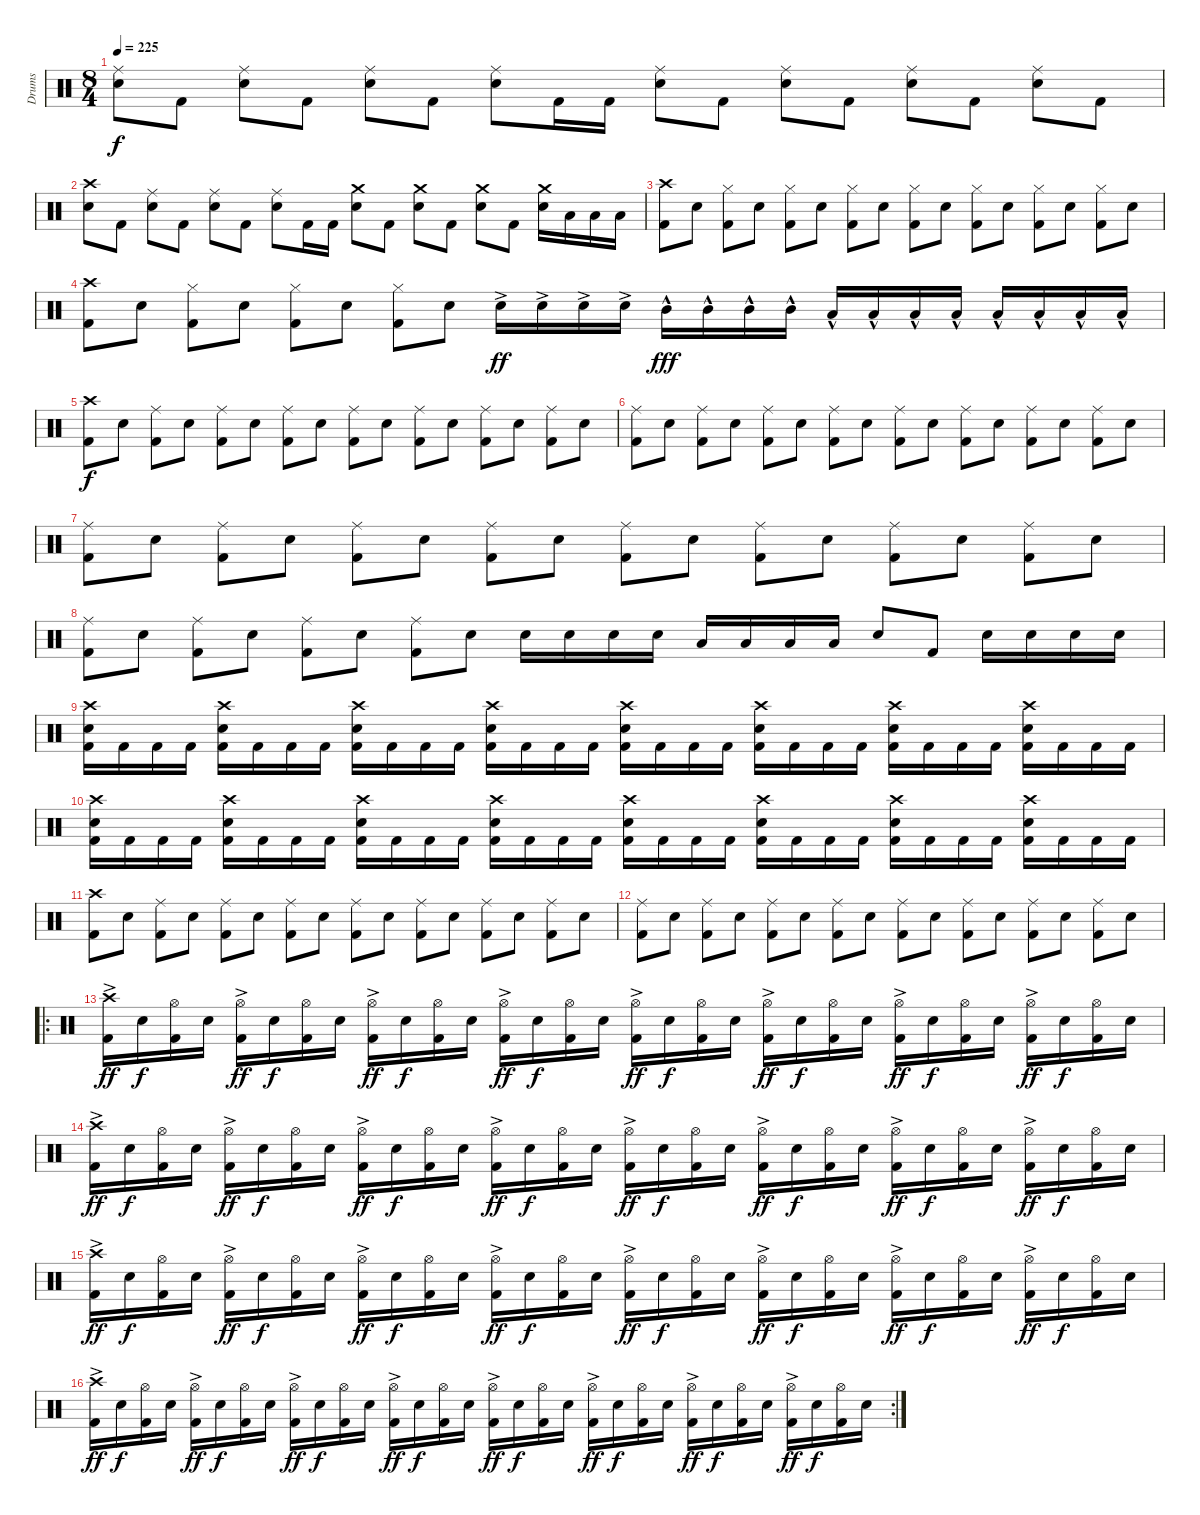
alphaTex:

\track ("Drums" "Drums") {instrument percussion}
\staff {score}
\articulation defaults
\ts (8 4)
\tempo 225
\clef neutral
\ks c
("Ride (middle)" "Electric Snare (hit)").8{dy f} "Kick (hit) 2".8 ("Ride (middle)" "Electric Snare (hit)").8 "Kick (hit) 2".8 ("Ride (middle)" "Electric Snare (hit)").8 "Kick (hit) 2".8 ("Ride (middle)" "Electric Snare (hit)").8 "Kick (hit) 2".16 "Kick (hit) 2".16 ("Ride (middle)" "Electric Snare (hit)").8 "Kick (hit) 2".8 ("Ride (middle)" "Electric Snare (hit)").8 "Kick (hit) 2".8 ("Ride (middle)" "Electric Snare (hit)").8 "Kick (hit) 2".8 ("Ride (middle)" "Electric Snare (hit)").8 "Kick (hit) 2".8 |
("Crash high (hit)" "Electric Snare (hit)").8 "Kick (hit) 2".8 ("Ride (middle)" "Electric Snare (hit)").8 "Kick (hit) 2".8 ("Ride (middle)" "Electric Snare (hit)").8 "Kick (hit) 2".8 ("Ride (middle)" "Electric Snare (hit)").8 "Kick (hit) 2".16 "Kick (hit) 2".16 ("Crash medium (hit)" "Electric Snare (hit)").8 "Kick (hit) 2".8 ("Crash medium (hit)" "Electric Snare (hit)").8 "Kick (hit) 2".8 ("Crash medium (hit)" "Electric Snare (hit)").8 "Kick (hit) 2".8 ("Crash medium (hit)" "Electric Snare (hit)").16 "Low Tom (hit)".16 "Low Tom (hit)".16 "Low Tom (hit)".16 |
("Crash high (hit)" "Kick (hit) 2").8 "Electric Snare (hit)".8 ("Hi-Hat (closed)" "Kick (hit) 2").8 "Electric Snare (hit)".8 ("Hi-Hat (closed)" "Kick (hit) 2").8 "Electric Snare (hit)".8 ("Hi-Hat (closed)" "Kick (hit) 2").8 "Electric Snare (hit)".8 ("Hi-Hat (closed)" "Kick (hit) 2").8 "Electric Snare (hit)".8 ("Hi-Hat (closed)" "Kick (hit) 2").8 "Electric Snare (hit)".8 ("Hi-Hat (closed)" "Kick (hit) 2").8 "Electric Snare (hit)".8 ("Hi-Hat (closed)" "Kick (hit) 2").8 "Electric Snare (hit)".8 |
("Crash high (hit)" "Kick (hit) 2").8 "Electric Snare (hit)".8 ("Hi-Hat (closed)" "Kick (hit) 2").8 "Electric Snare (hit)".8 ("Hi-Hat (closed)" "Kick (hit) 2").8 "Electric Snare (hit)".8 ("Hi-Hat (closed)" "Kick (hit) 2").8 "Electric Snare (hit)".8 "Electric Snare (hit)"{ac}.16{dy ff} "Electric Snare (hit)"{ac}.16 "Electric Snare (hit)"{ac}.16 "Electric Snare (hit)"{ac}.16 "Mid Tom (hit)"{hac}.16{dy fff} "Mid Tom (hit)"{hac}.16 "Mid Tom (hit)"{hac}.16 "Mid Tom (hit)"{hac}.16 "Low Tom (hit)"{hac}.16 "Low Tom (hit)"{hac}.16 "Low Tom (hit)"{hac}.16 "Low Tom (hit)"{hac}.16 "Low Floor Tom (hit)"{hac}.16 "Low Floor Tom (hit)"{hac}.16 "Low Floor Tom (hit)"{hac}.16 "Low Floor Tom (hit)"{hac}.16 |
("Crash high (hit)" "Kick (hit) 2").8{dy f} "Electric Snare (hit)".8 ("Ride (middle)" "Kick (hit) 2").8 "Electric Snare (hit)".8 ("Ride (middle)" "Kick (hit) 2").8 "Electric Snare (hit)".8 ("Ride (middle)" "Kick (hit) 2").8 "Electric Snare (hit)".8 ("Ride (middle)" "Kick (hit) 2").8 "Electric Snare (hit)".8 ("Ride (middle)" "Kick (hit) 2").8 "Electric Snare (hit)".8 ("Ride (middle)" "Kick (hit) 2").8 "Electric Snare (hit)".8 ("Ride (middle)" "Kick (hit) 2").8 "Electric Snare (hit)".8 |
("Ride (middle)" "Kick (hit) 2").8 "Electric Snare (hit)".8 ("Ride (middle)" "Kick (hit) 2").8 "Electric Snare (hit)".8 ("Ride (middle)" "Kick (hit) 2").8 "Electric Snare (hit)".8 ("Ride (middle)" "Kick (hit) 2").8 "Electric Snare (hit)".8 ("Ride (middle)" "Kick (hit) 2").8 "Electric Snare (hit)".8 ("Ride (middle)" "Kick (hit) 2").8 "Electric Snare (hit)".8 ("Ride (middle)" "Kick (hit) 2").8 "Electric Snare (hit)".8 ("Ride (middle)" "Kick (hit) 2").8 "Electric Snare (hit)".8 |
("Ride (middle)" "Kick (hit) 2").8 "Electric Snare (hit)".8 ("Ride (middle)" "Kick (hit) 2").8 "Electric Snare (hit)".8 ("Ride (middle)" "Kick (hit) 2").8 "Electric Snare (hit)".8 ("Ride (middle)" "Kick (hit) 2").8 "Electric Snare (hit)".8 ("Ride (middle)" "Kick (hit) 2").8 "Electric Snare (hit)".8 ("Ride (middle)" "Kick (hit) 2").8 "Electric Snare (hit)".8 ("Ride (middle)" "Kick (hit) 2").8 "Electric Snare (hit)".8 ("Ride (middle)" "Kick (hit) 2").8 "Electric Snare (hit)".8 |
("Ride (middle)" "Kick (hit) 2").8 "Electric Snare (hit)".8 ("Ride (middle)" "Kick (hit) 2").8 "Electric Snare (hit)".8 ("Ride (middle)" "Kick (hit) 2").8 "Electric Snare (hit)".8 ("Ride (middle)" "Kick (hit) 2").8 "Electric Snare (hit)".8 "Electric Snare (hit)".16 "Electric Snare (hit)".16 "Electric Snare (hit)".16 "Electric Snare (hit)".16 "Low Tom (hit)".16 "Low Tom (hit)".16 "Low Tom (hit)".16 "Low Tom (hit)".16 "Electric Snare (hit)".8 "Kick (hit) 2".8 "Electric Snare (hit)".16 "Electric Snare (hit)".16 "Electric Snare (hit)".16 "Electric Snare (hit)".16 |
("Crash high (hit)" "Electric Snare (hit)" "Kick (hit) 2").16 "Kick (hit) 2".16 "Kick (hit) 2".16 "Kick (hit) 2".16 ("Crash high (hit)" "Electric Snare (hit)" "Kick (hit) 2").16 "Kick (hit) 2".16 "Kick (hit) 2".16 "Kick (hit) 2".16 ("Crash high (hit)" "Electric Snare (hit)" "Kick (hit) 2").16 "Kick (hit) 2".16 "Kick (hit) 2".16 "Kick (hit) 2".16 ("Crash high (hit)" "Electric Snare (hit)" "Kick (hit) 2").16 "Kick (hit) 2".16 "Kick (hit) 2".16 "Kick (hit) 2".16 ("Crash high (hit)" "Electric Snare (hit)" "Kick (hit) 2").16 "Kick (hit) 2".16 "Kick (hit) 2".16 "Kick (hit) 2".16 ("Crash high (hit)" "Electric Snare (hit)" "Kick (hit) 2").16 "Kick (hit) 2".16 "Kick (hit) 2".16 "Kick (hit) 2".16 ("Crash high (hit)" "Electric Snare (hit)" "Kick (hit) 2").16 "Kick (hit) 2".16 "Kick (hit) 2".16 "Kick (hit) 2".16 ("Crash high (hit)" "Electric Snare (hit)" "Kick (hit) 2").16 "Kick (hit) 2".16 "Kick (hit) 2".16 "Kick (hit) 2".16 |
("Crash high (hit)" "Electric Snare (hit)" "Kick (hit) 2").16 "Kick (hit) 2".16 "Kick (hit) 2".16 "Kick (hit) 2".16 ("Crash high (hit)" "Electric Snare (hit)" "Kick (hit) 2").16 "Kick (hit) 2".16 "Kick (hit) 2".16 "Kick (hit) 2".16 ("Crash high (hit)" "Electric Snare (hit)" "Kick (hit) 2").16 "Kick (hit) 2".16 "Kick (hit) 2".16 "Kick (hit) 2".16 ("Crash high (hit)" "Electric Snare (hit)" "Kick (hit) 2").16 "Kick (hit) 2".16 "Kick (hit) 2".16 "Kick (hit) 2".16 ("Crash high (hit)" "Electric Snare (hit)" "Kick (hit) 2").16 "Kick (hit) 2".16 "Kick (hit) 2".16 "Kick (hit) 2".16 ("Crash high (hit)" "Electric Snare (hit)" "Kick (hit) 2").16 "Kick (hit) 2".16 "Kick (hit) 2".16 "Kick (hit) 2".16 ("Crash high (hit)" "Electric Snare (hit)" "Kick (hit) 2").16 "Kick (hit) 2".16 "Kick (hit) 2".16 "Kick (hit) 2".16 ("Crash high (hit)" "Electric Snare (hit)" "Kick (hit) 2").16 "Kick (hit) 2".16 "Kick (hit) 2".16 "Kick (hit) 2".16 |
("Crash high (hit)" "Kick (hit) 2").8 "Electric Snare (hit)".8 ("Ride (middle)" "Kick (hit) 2").8 "Electric Snare (hit)".8 ("Ride (middle)" "Kick (hit) 2").8 "Electric Snare (hit)".8 ("Ride (middle)" "Kick (hit) 2").8 "Electric Snare (hit)".8 ("Ride (middle)" "Kick (hit) 2").8 "Electric Snare (hit)".8 ("Ride (middle)" "Kick (hit) 2").8 "Electric Snare (hit)".8 ("Ride (middle)" "Kick (hit) 2").8 "Electric Snare (hit)".8 ("Ride (middle)" "Kick (hit) 2").8 "Electric Snare (hit)".8 |
("Ride (middle)" "Kick (hit) 2").8 "Electric Snare (hit)".8 ("Ride (middle)" "Kick (hit) 2").8 "Electric Snare (hit)".8 ("Ride (middle)" "Kick (hit) 2").8 "Electric Snare (hit)".8 ("Ride (middle)" "Kick (hit) 2").8 "Electric Snare (hit)".8 ("Ride (middle)" "Kick (hit) 2").8 "Electric Snare (hit)".8 ("Ride (middle)" "Kick (hit) 2").8 "Electric Snare (hit)".8 ("Ride (middle)" "Kick (hit) 2").8 "Electric Snare (hit)".8 ("Ride (middle)" "Kick (hit) 2").8 "Electric Snare (hit)".8 |
\ro
("Crash high (hit)"{ac} "Kick (hit) 2").16{dy ff} "Electric Snare (hit)".16{dy f} ("Hi-Hat (open)" "Kick (hit) 2").16 "Electric Snare (hit)".16 ("Hi-Hat (open)"{ac} "Kick (hit) 2").16{dy ff} "Electric Snare (hit)".16{dy f} ("Hi-Hat (open)" "Kick (hit) 2").16 "Electric Snare (hit)".16 ("Hi-Hat (open)"{ac} "Kick (hit) 2").16{dy ff} "Electric Snare (hit)".16{dy f} ("Hi-Hat (open)" "Kick (hit) 2").16 "Electric Snare (hit)".16 ("Hi-Hat (open)"{ac} "Kick (hit) 2").16{dy ff} "Electric Snare (hit)".16{dy f} ("Hi-Hat (open)" "Kick (hit) 2").16 "Electric Snare (hit)".16 ("Hi-Hat (open)"{ac} "Kick (hit) 2").16{dy ff} "Electric Snare (hit)".16{dy f} ("Hi-Hat (open)" "Kick (hit) 2").16 "Electric Snare (hit)".16 ("Hi-Hat (open)"{ac} "Kick (hit) 2").16{dy ff} "Electric Snare (hit)".16{dy f} ("Hi-Hat (open)" "Kick (hit) 2").16 "Electric Snare (hit)".16 ("Hi-Hat (open)"{ac} "Kick (hit) 2").16{dy ff} "Electric Snare (hit)".16{dy f} ("Hi-Hat (open)" "Kick (hit) 2").16 "Electric Snare (hit)".16 ("Hi-Hat (open)"{ac} "Kick (hit) 2").16{dy ff} "Electric Snare (hit)".16{dy f} ("Hi-Hat (open)" "Kick (hit) 2").16 "Electric Snare (hit)".16 |
("Crash high (hit)"{ac} "Kick (hit) 2").16{dy ff} "Electric Snare (hit)".16{dy f} ("Hi-Hat (open)" "Kick (hit) 2").16 "Electric Snare (hit)".16 ("Hi-Hat (open)"{ac} "Kick (hit) 2").16{dy ff} "Electric Snare (hit)".16{dy f} ("Hi-Hat (open)" "Kick (hit) 2").16 "Electric Snare (hit)".16 ("Hi-Hat (open)"{ac} "Kick (hit) 2").16{dy ff} "Electric Snare (hit)".16{dy f} ("Hi-Hat (open)" "Kick (hit) 2").16 "Electric Snare (hit)".16 ("Hi-Hat (open)"{ac} "Kick (hit) 2").16{dy ff} "Electric Snare (hit)".16{dy f} ("Hi-Hat (open)" "Kick (hit) 2").16 "Electric Snare (hit)".16 ("Hi-Hat (open)"{ac} "Kick (hit) 2").16{dy ff} "Electric Snare (hit)".16{dy f} ("Hi-Hat (open)" "Kick (hit) 2").16 "Electric Snare (hit)".16 ("Hi-Hat (open)"{ac} "Kick (hit) 2").16{dy ff} "Electric Snare (hit)".16{dy f} ("Hi-Hat (open)" "Kick (hit) 2").16 "Electric Snare (hit)".16 ("Hi-Hat (open)"{ac} "Kick (hit) 2").16{dy ff} "Electric Snare (hit)".16{dy f} ("Hi-Hat (open)" "Kick (hit) 2").16 "Electric Snare (hit)".16 ("Hi-Hat (open)"{ac} "Kick (hit) 2").16{dy ff} "Electric Snare (hit)".16{dy f} ("Hi-Hat (open)" "Kick (hit) 2").16 "Electric Snare (hit)".16 |
("Crash high (hit)"{ac} "Kick (hit) 2").16{dy ff} "Electric Snare (hit)".16{dy f} ("Hi-Hat (open)" "Kick (hit) 2").16 "Electric Snare (hit)".16 ("Hi-Hat (open)"{ac} "Kick (hit) 2").16{dy ff} "Electric Snare (hit)".16{dy f} ("Hi-Hat (open)" "Kick (hit) 2").16 "Electric Snare (hit)".16 ("Hi-Hat (open)"{ac} "Kick (hit) 2").16{dy ff} "Electric Snare (hit)".16{dy f} ("Hi-Hat (open)" "Kick (hit) 2").16 "Electric Snare (hit)".16 ("Hi-Hat (open)"{ac} "Kick (hit) 2").16{dy ff} "Electric Snare (hit)".16{dy f} ("Hi-Hat (open)" "Kick (hit) 2").16 "Electric Snare (hit)".16 ("Hi-Hat (open)"{ac} "Kick (hit) 2").16{dy ff} "Electric Snare (hit)".16{dy f} ("Hi-Hat (open)" "Kick (hit) 2").16 "Electric Snare (hit)".16 ("Hi-Hat (open)"{ac} "Kick (hit) 2").16{dy ff} "Electric Snare (hit)".16{dy f} ("Hi-Hat (open)" "Kick (hit) 2").16 "Electric Snare (hit)".16 ("Hi-Hat (open)"{ac} "Kick (hit) 2").16{dy ff} "Electric Snare (hit)".16{dy f} ("Hi-Hat (open)" "Kick (hit) 2").16 "Electric Snare (hit)".16 ("Hi-Hat (open)"{ac} "Kick (hit) 2").16{dy ff} "Electric Snare (hit)".16{dy f} ("Hi-Hat (open)" "Kick (hit) 2").16 "Electric Snare (hit)".16 |
\rc 2
("Crash high (hit)"{ac} "Kick (hit) 2").16{dy ff} "Electric Snare (hit)".16{dy f} ("Hi-Hat (open)" "Kick (hit) 2").16 "Electric Snare (hit)".16 ("Hi-Hat (open)"{ac} "Kick (hit) 2").16{dy ff} "Electric Snare (hit)".16{dy f} ("Hi-Hat (open)" "Kick (hit) 2").16 "Electric Snare (hit)".16 ("Hi-Hat (open)"{ac} "Kick (hit) 2").16{dy ff} "Electric Snare (hit)".16{dy f} ("Hi-Hat (open)" "Kick (hit) 2").16 "Electric Snare (hit)".16 ("Hi-Hat (open)"{ac} "Kick (hit) 2").16{dy ff} "Electric Snare (hit)".16{dy f} ("Hi-Hat (open)" "Kick (hit) 2").16 "Electric Snare (hit)".16 ("Hi-Hat (open)"{ac} "Kick (hit) 2").16{dy ff} "Electric Snare (hit)".16{dy f} ("Hi-Hat (open)" "Kick (hit) 2").16 "Electric Snare (hit)".16 ("Hi-Hat (open)"{ac} "Kick (hit) 2").16{dy ff} "Electric Snare (hit)".16{dy f} ("Hi-Hat (open)" "Kick (hit) 2").16 "Electric Snare (hit)".16 ("Hi-Hat (open)"{ac} "Kick (hit) 2").16{dy ff} "Electric Snare (hit)".16{dy f} ("Hi-Hat (open)" "Kick (hit) 2").16 "Electric Snare (hit)".16 ("Hi-Hat (open)"{ac} "Kick (hit) 2").16{dy ff} "Electric Snare (hit)".16{dy f} ("Hi-Hat (open)" "Kick (hit) 2").16 "Electric Snare (hit)".16
